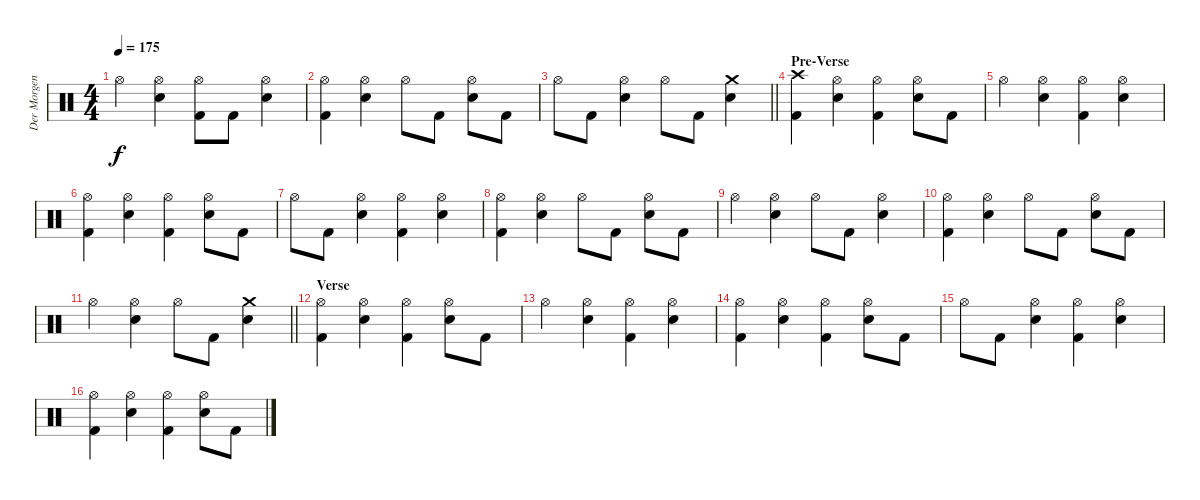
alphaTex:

\track ("Der Morgenstern" "Der Morgen") {instrument percussion}
\staff {score}
\articulation defaults
\ts (4 4)
\tempo 175
\clef neutral
\ks c "Hi-Hat (open)".4{dy f}
("Hi-Hat (open)" "Electric Snare (hit)").4 ("Hi-Hat (open)" "Kick (hit) 2").8 "Kick (hit) 2".8 ("Hi-Hat (open)" "Electric Snare (hit)").4 |
("Hi-Hat (open)" "Kick (hit) 2").4 ("Hi-Hat (open)" "Electric Snare (hit)").4 "Hi-Hat (open)".8 "Kick (hit) 2".8 ("Hi-Hat (open)" "Electric Snare (hit)").8 "Kick (hit) 2".8 |
\barLineRight lightlight "Hi-Hat (open)".8 "Kick (hit) 2".8
("Hi-Hat (open)" "Electric Snare (hit)").4 "Hi-Hat (open)".8 "Kick (hit) 2".8 ("Crash medium (hit)" "Electric Snare (hit)").4 |
\section ("" "Pre-Verse")
("Crash high (hit)" "Kick (hit) 2").4 ("Hi-Hat (open)" "Electric Snare (hit)").4 ("Hi-Hat (open)" "Kick (hit) 2").4 ("Hi-Hat (open)" "Electric Snare (hit)").8 "Kick (hit) 2".8 |
"Hi-Hat (open)".4 ("Hi-Hat (open)" "Electric Snare (hit)").4 ("Hi-Hat (open)" "Kick (hit) 2").4 ("Hi-Hat (open)" "Electric Snare (hit)").4 |
("Hi-Hat (open)" "Kick (hit) 2").4 ("Hi-Hat (open)" "Electric Snare (hit)").4 ("Hi-Hat (open)" "Kick (hit) 2").4 ("Hi-Hat (open)" "Electric Snare (hit)").8 "Kick (hit) 2".8 |
"Hi-Hat (open)".8 "Kick (hit) 2".8 ("Hi-Hat (open)" "Electric Snare (hit)").4 ("Hi-Hat (open)" "Kick (hit) 2").4 ("Hi-Hat (open)" "Electric Snare (hit)").4 |
("Hi-Hat (open)" "Kick (hit) 2").4 ("Hi-Hat (open)" "Electric Snare (hit)").4 "Hi-Hat (open)".8 "Kick (hit) 2".8 ("Hi-Hat (open)" "Electric Snare (hit)").8 "Kick (hit) 2".8 |
"Hi-Hat (open)".4 ("Hi-Hat (open)" "Electric Snare (hit)").4 "Hi-Hat (open)".8 "Kick (hit) 2".8 ("Hi-Hat (open)" "Electric Snare (hit)").4 |
("Hi-Hat (open)" "Kick (hit) 2").4 ("Hi-Hat (open)" "Electric Snare (hit)").4 "Hi-Hat (open)".8 "Kick (hit) 2".8 ("Hi-Hat (open)" "Electric Snare (hit)").8 "Kick (hit) 2".8 |
\barLineRight lightlight "Hi-Hat (open)".4
("Hi-Hat (open)" "Electric Snare (hit)").4 "Hi-Hat (open)".8 "Kick (hit) 2".8 ("Crash medium (hit)" "Electric Snare (hit)").4 |
\section ("" "Verse")
("Hi-Hat (open)" "Kick (hit) 2").4 ("Hi-Hat (open)" "Electric Snare (hit)").4 ("Hi-Hat (open)" "Kick (hit) 2").4 ("Hi-Hat (open)" "Electric Snare (hit)").8 "Kick (hit) 2".8 |
"Hi-Hat (open)".4 ("Hi-Hat (open)" "Electric Snare (hit)").4 ("Hi-Hat (open)" "Kick (hit) 2").4 ("Hi-Hat (open)" "Electric Snare (hit)").4 |
("Hi-Hat (open)" "Kick (hit) 2").4 ("Hi-Hat (open)" "Electric Snare (hit)").4 ("Hi-Hat (open)" "Kick (hit) 2").4 ("Hi-Hat (open)" "Electric Snare (hit)").8 "Kick (hit) 2".8 |
"Hi-Hat (open)".8 "Kick (hit) 2".8 ("Hi-Hat (open)" "Electric Snare (hit)").4 ("Hi-Hat (open)" "Kick (hit) 2").4 ("Hi-Hat (open)" "Electric Snare (hit)").4 |
("Hi-Hat (open)" "Kick (hit) 2").4 ("Hi-Hat (open)" "Electric Snare (hit)").4 ("Hi-Hat (open)" "Kick (hit) 2").4 ("Hi-Hat (open)" "Electric Snare (hit)").8 "Kick (hit) 2".8
